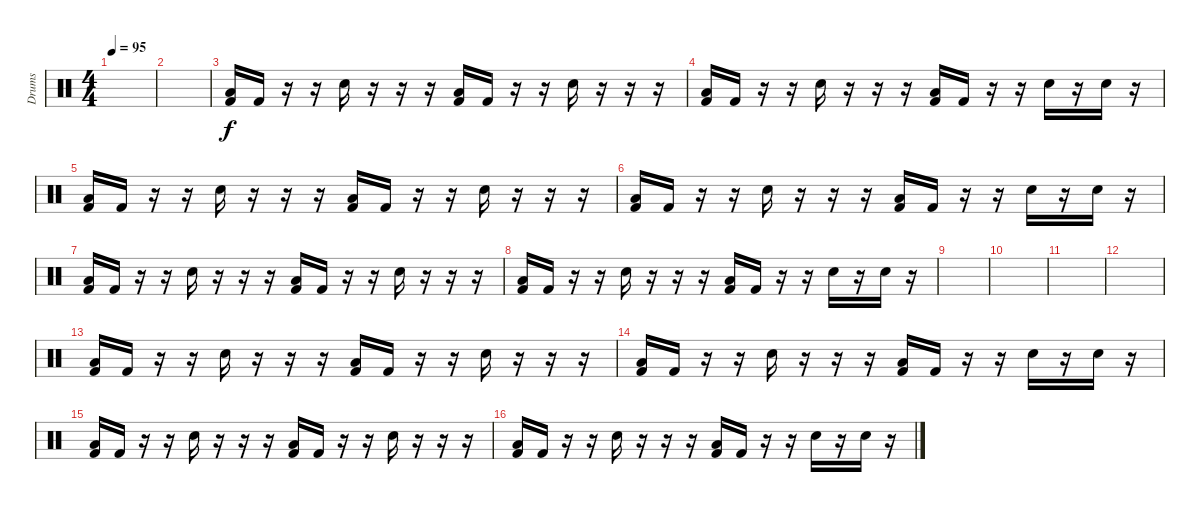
\track ("Drums" "Drums") {instrument percussion bank 255}
\staff {score}
\articulation defaults
\ts (4 4)
\tempo 95
\clef neutral
\ks c
|
|
("Low Tom (hit)" "Kick (hit) 2").16 "Kick (hit) 2".16 r.16 r.16 "Snare (hit) 2".16 r.16 r.16 r.16 ("Low Tom (hit)" "Kick (hit) 2").16 "Kick (hit) 2".16 r.16 r.16 "Snare (hit) 2".16 r.16 r.16 r.16 |
("Low Tom (hit)" "Kick (hit) 2").16 "Kick (hit) 2".16 r.16 r.16 "Snare (hit) 2".16 r.16 r.16 r.16 ("Low Tom (hit)" "Kick (hit) 2").16 "Kick (hit) 2".16 r.16 r.16 "Snare (hit) 2".16 r.16 "Snare (hit) 2".16 r.16 |
("Low Tom (hit)" "Kick (hit) 2").16 "Kick (hit) 2".16 r.16 r.16 "Snare (hit) 2".16 r.16 r.16 r.16 ("Low Tom (hit)" "Kick (hit) 2").16 "Kick (hit) 2".16 r.16 r.16 "Snare (hit) 2".16 r.16 r.16 r.16 |
("Low Tom (hit)" "Kick (hit) 2").16 "Kick (hit) 2".16 r.16 r.16 "Snare (hit) 2".16 r.16 r.16 r.16 ("Low Tom (hit)" "Kick (hit) 2").16 "Kick (hit) 2".16 r.16 r.16 "Snare (hit) 2".16 r.16 "Snare (hit) 2".16 r.16 |
("Low Tom (hit)" "Kick (hit) 2").16 "Kick (hit) 2".16 r.16 r.16 "Snare (hit) 2".16 r.16 r.16 r.16 ("Low Tom (hit)" "Kick (hit) 2").16 "Kick (hit) 2".16 r.16 r.16 "Snare (hit) 2".16 r.16 r.16 r.16 |
("Low Tom (hit)" "Kick (hit) 2").16 "Kick (hit) 2".16 r.16 r.16 "Snare (hit) 2".16 r.16 r.16 r.16 ("Low Tom (hit)" "Kick (hit) 2").16 "Kick (hit) 2".16 r.16 r.16 "Snare (hit) 2".16 r.16 "Snare (hit) 2".16 r.16 |
|
|
|
|
("Low Tom (hit)" "Kick (hit) 2").16 "Kick (hit) 2".16 r.16 r.16 "Snare (hit) 2".16 r.16 r.16 r.16 ("Low Tom (hit)" "Kick (hit) 2").16 "Kick (hit) 2".16 r.16 r.16 "Snare (hit) 2".16 r.16 r.16 r.16 |
("Low Tom (hit)" "Kick (hit) 2").16 "Kick (hit) 2".16 r.16 r.16 "Snare (hit) 2".16 r.16 r.16 r.16 ("Low Tom (hit)" "Kick (hit) 2").16 "Kick (hit) 2".16 r.16 r.16 "Snare (hit) 2".16 r.16 "Snare (hit) 2".16 r.16 |
("Low Tom (hit)" "Kick (hit) 2").16 "Kick (hit) 2".16 r.16 r.16 "Snare (hit) 2".16 r.16 r.16 r.16 ("Low Tom (hit)" "Kick (hit) 2").16 "Kick (hit) 2".16 r.16 r.16 "Snare (hit) 2".16 r.16 r.16 r.16 |
("Low Tom (hit)" "Kick (hit) 2").16 "Kick (hit) 2".16 r.16 r.16 "Snare (hit) 2".16 r.16 r.16 r.16 ("Low Tom (hit)" "Kick (hit) 2").16 "Kick (hit) 2".16 r.16 r.16 "Snare (hit) 2".16 r.16 "Snare (hit) 2".16 r.16
